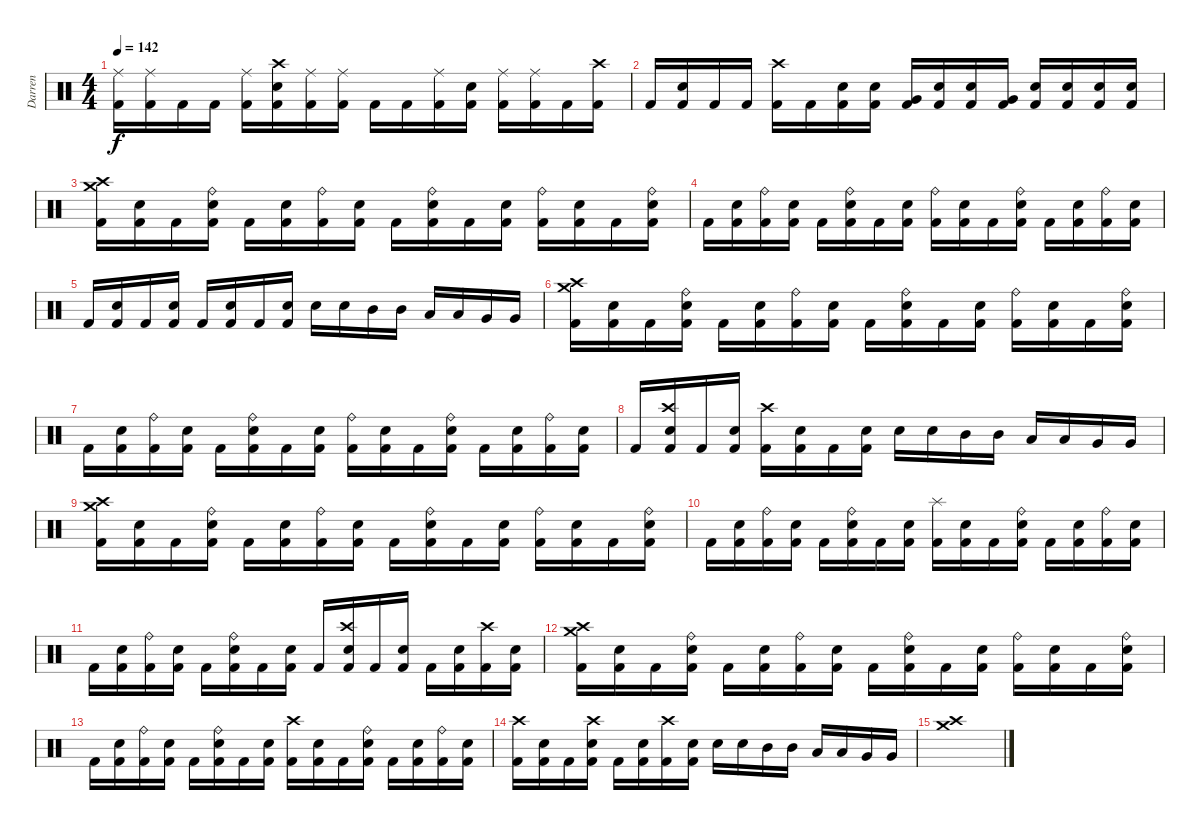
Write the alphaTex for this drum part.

\track ("Darren" "Darren") {instrument percussion}
\staff {score}
\articulation defaults
\ts (4 4)
\tempo 142
\clef neutral
\ks c
("Ride (middle)" "Kick (hit) 2").16{dy f} ("Ride (middle)" "Kick (hit) 2").16 "Kick (hit) 2".16 "Kick (hit) 2".16 ("Ride (middle)" "Kick (hit) 2").16 ("Crash high (hit)" "Electric Snare (hit)" "Kick (hit) 2").16 ("Ride (middle)" "Kick (hit) 2").16 ("Ride (middle)" "Kick (hit) 2").16 "Kick (hit) 2".16 "Kick (hit) 2".16 ("Ride (middle)" "Kick (hit) 2").16 ("Electric Snare (hit)" "Kick (hit) 2").16 ("Ride (middle)" "Kick (hit) 2").16 ("Ride (middle)" "Kick (hit) 2").16 "Kick (hit) 2".16 ("Crash high (hit)" "Kick (hit) 2").16 |
"Kick (hit) 2".16 ("Electric Snare (hit)" "Kick (hit) 2").16 "Kick (hit) 2".16 "Kick (hit) 2".16 ("Crash high (hit)" "Kick (hit) 2").16 "Kick (hit) 2".16 ("Electric Snare (hit)" "Kick (hit) 2").16 ("Electric Snare (hit)" "Kick (hit) 2").16 ("Very Low Tom (hit)" "Kick (hit) 2").16 ("Electric Snare (hit)" "Kick (hit) 2").16 ("Electric Snare (hit)" "Kick (hit) 2").16 ("Very Low Tom (hit)" "Kick (hit) 2").16 ("Electric Snare (hit)" "Kick (hit) 2").16 ("Electric Snare (hit)" "Kick (hit) 2").16 ("Electric Snare (hit)" "Kick (hit) 2").16 ("Electric Snare (hit)" "Kick (hit) 2").16 |
("Crash medium (hit)" "Crash high (hit)" "Kick (hit) 2").16 ("Electric Snare (hit)" "Kick (hit) 2").16 "Kick (hit) 2".16 ("Ride (bell)" "Electric Snare (hit)" "Kick (hit) 2").16 "Kick (hit) 2".16 ("Electric Snare (hit)" "Kick (hit) 2").16 ("Ride (bell)" "Kick (hit) 2").16 ("Electric Snare (hit)" "Kick (hit) 2").16 "Kick (hit) 2".16 ("Ride (bell)" "Electric Snare (hit)" "Kick (hit) 2").16 "Kick (hit) 2".16 ("Electric Snare (hit)" "Kick (hit) 2").16 ("Ride (bell)" "Kick (hit) 2").16 ("Electric Snare (hit)" "Kick (hit) 2").16 "Kick (hit) 2".16 ("Ride (bell)" "Electric Snare (hit)" "Kick (hit) 2").16 |
"Kick (hit) 2".16 ("Electric Snare (hit)" "Kick (hit) 2").16 ("Ride (bell)" "Kick (hit) 2").16 ("Electric Snare (hit)" "Kick (hit) 2").16 "Kick (hit) 2".16 ("Ride (bell)" "Electric Snare (hit)" "Kick (hit) 2").16 "Kick (hit) 2".16 ("Electric Snare (hit)" "Kick (hit) 2").16 ("Ride (bell)" "Kick (hit) 2").16 ("Electric Snare (hit)" "Kick (hit) 2").16 "Kick (hit) 2".16 ("Ride (bell)" "Electric Snare (hit)" "Kick (hit) 2").16 "Kick (hit) 2".16 ("Electric Snare (hit)" "Kick (hit) 2").16 ("Ride (bell)" "Kick (hit) 2").16 ("Electric Snare (hit)" "Kick (hit) 2").16 |
"Kick (hit) 2".16 ("Electric Snare (hit)" "Kick (hit) 2").16 "Kick (hit) 2".16 ("Electric Snare (hit)" "Kick (hit) 2").16 "Kick (hit) 2".16 ("Electric Snare (hit)" "Kick (hit) 2").16 "Kick (hit) 2".16 ("Electric Snare (hit)" "Kick (hit) 2").16 "Electric Snare (hit)".16 "Electric Snare (hit)".16 "Mid Tom (hit)".16 "Mid Tom (hit)".16 "Low Tom (hit)".16 "Low Tom (hit)".16 "Very Low Tom (hit)".16 "Very Low Tom (hit)".16 |
("Crash medium (hit)" "Crash high (hit)" "Kick (hit) 2").16 ("Electric Snare (hit)" "Kick (hit) 2").16 "Kick (hit) 2".16 ("Ride (bell)" "Electric Snare (hit)" "Kick (hit) 2").16 "Kick (hit) 2".16 ("Electric Snare (hit)" "Kick (hit) 2").16 ("Ride (bell)" "Kick (hit) 2").16 ("Electric Snare (hit)" "Kick (hit) 2").16 "Kick (hit) 2".16 ("Ride (bell)" "Electric Snare (hit)" "Kick (hit) 2").16 "Kick (hit) 2".16 ("Electric Snare (hit)" "Kick (hit) 2").16 ("Ride (bell)" "Kick (hit) 2").16 ("Electric Snare (hit)" "Kick (hit) 2").16 "Kick (hit) 2".16 ("Ride (bell)" "Electric Snare (hit)" "Kick (hit) 2").16 |
"Kick (hit) 2".16 ("Electric Snare (hit)" "Kick (hit) 2").16 ("Ride (bell)" "Kick (hit) 2").16 ("Electric Snare (hit)" "Kick (hit) 2").16 "Kick (hit) 2".16 ("Ride (bell)" "Electric Snare (hit)" "Kick (hit) 2").16 "Kick (hit) 2".16 ("Electric Snare (hit)" "Kick (hit) 2").16 ("Ride (bell)" "Kick (hit) 2").16 ("Electric Snare (hit)" "Kick (hit) 2").16 "Kick (hit) 2".16 ("Ride (bell)" "Electric Snare (hit)" "Kick (hit) 2").16 "Kick (hit) 2".16 ("Electric Snare (hit)" "Kick (hit) 2").16 ("Ride (bell)" "Kick (hit) 2").16 ("Electric Snare (hit)" "Kick (hit) 2").16 |
"Kick (hit) 2".16 ("Crash high (hit)" "Electric Snare (hit)" "Kick (hit) 2").16 "Kick (hit) 2".16 ("Electric Snare (hit)" "Kick (hit) 2").16 ("Crash high (hit)" "Kick (hit) 2").16 ("Electric Snare (hit)" "Kick (hit) 2").16 "Kick (hit) 2".16 ("Electric Snare (hit)" "Kick (hit) 2").16 "Electric Snare (hit)".16 "Electric Snare (hit)".16 "Mid Tom (hit)".16 "Mid Tom (hit)".16 "Low Tom (hit)".16 "Low Tom (hit)".16 "Very Low Tom (hit)".16 "Very Low Tom (hit)".16 |
("Crash medium (hit)" "Crash high (hit)" "Kick (hit) 2").16 ("Electric Snare (hit)" "Kick (hit) 2").16 "Kick (hit) 2".16 ("Ride (bell)" "Electric Snare (hit)" "Kick (hit) 2").16 "Kick (hit) 2".16 ("Electric Snare (hit)" "Kick (hit) 2").16 ("Ride (bell)" "Kick (hit) 2").16 ("Electric Snare (hit)" "Kick (hit) 2").16 "Kick (hit) 2".16 ("Ride (bell)" "Electric Snare (hit)" "Kick (hit) 2").16 "Kick (hit) 2".16 ("Electric Snare (hit)" "Kick (hit) 2").16 ("Ride (bell)" "Kick (hit) 2").16 ("Electric Snare (hit)" "Kick (hit) 2").16 "Kick (hit) 2".16 ("Ride (bell)" "Electric Snare (hit)" "Kick (hit) 2").16 |
"Kick (hit) 2".16 ("Electric Snare (hit)" "Kick (hit) 2").16 ("Ride (bell)" "Kick (hit) 2").16 ("Electric Snare (hit)" "Kick (hit) 2").16 "Kick (hit) 2".16 ("Ride (bell)" "Electric Snare (hit)" "Kick (hit) 2").16 "Kick (hit) 2".16 ("Electric Snare (hit)" "Kick (hit) 2").16 ("Splash (hit)" "Kick (hit) 2").16 ("Electric Snare (hit)" "Kick (hit) 2").16 "Kick (hit) 2".16 ("Ride (bell)" "Electric Snare (hit)" "Kick (hit) 2").16 "Kick (hit) 2".16 ("Electric Snare (hit)" "Kick (hit) 2").16 ("Ride (bell)" "Kick (hit) 2").16 ("Electric Snare (hit)" "Kick (hit) 2").16 |
"Kick (hit) 2".16 ("Electric Snare (hit)" "Kick (hit) 2").16 ("Ride (bell)" "Kick (hit) 2").16 ("Electric Snare (hit)" "Kick (hit) 2").16 "Kick (hit) 2".16 ("Ride (bell)" "Electric Snare (hit)" "Kick (hit) 2").16 "Kick (hit) 2".16 ("Electric Snare (hit)" "Kick (hit) 2").16 "Kick (hit) 2".16 ("Crash high (hit)" "Electric Snare (hit)" "Kick (hit) 2").16 "Kick (hit) 2".16 ("Electric Snare (hit)" "Kick (hit) 2").16 "Kick (hit) 2".16 ("Electric Snare (hit)" "Kick (hit) 2").16 ("Crash high (hit)" "Kick (hit) 2").16 ("Electric Snare (hit)" "Kick (hit) 2").16 |
("Crash medium (hit)" "Crash high (hit)" "Kick (hit) 2").16 ("Electric Snare (hit)" "Kick (hit) 2").16 "Kick (hit) 2".16 ("Ride (bell)" "Electric Snare (hit)" "Kick (hit) 2").16 "Kick (hit) 2".16 ("Electric Snare (hit)" "Kick (hit) 2").16 ("Ride (bell)" "Kick (hit) 2").16 ("Electric Snare (hit)" "Kick (hit) 2").16 "Kick (hit) 2".16 ("Ride (bell)" "Electric Snare (hit)" "Kick (hit) 2").16 "Kick (hit) 2".16 ("Electric Snare (hit)" "Kick (hit) 2").16 ("Ride (bell)" "Kick (hit) 2").16 ("Electric Snare (hit)" "Kick (hit) 2").16 "Kick (hit) 2".16 ("Ride (bell)" "Electric Snare (hit)" "Kick (hit) 2").16 |
"Kick (hit) 2".16 ("Electric Snare (hit)" "Kick (hit) 2").16 ("Ride (bell)" "Kick (hit) 2").16 ("Electric Snare (hit)" "Kick (hit) 2").16 "Kick (hit) 2".16 ("Ride (bell)" "Electric Snare (hit)" "Kick (hit) 2").16 "Kick (hit) 2".16 ("Electric Snare (hit)" "Kick (hit) 2").16 ("Crash high (hit)" "Kick (hit) 2").16 ("Electric Snare (hit)" "Kick (hit) 2").16 "Kick (hit) 2".16 ("Ride (bell)" "Electric Snare (hit)" "Kick (hit) 2").16 "Kick (hit) 2".16 ("Electric Snare (hit)" "Kick (hit) 2").16 ("Ride (bell)" "Kick (hit) 2").16 ("Electric Snare (hit)" "Kick (hit) 2").16 |
("Crash high (hit)" "Kick (hit) 2").16 ("Electric Snare (hit)" "Kick (hit) 2").16 "Kick (hit) 2".16 ("Crash high (hit)" "Electric Snare (hit)" "Kick (hit) 2").16 "Kick (hit) 2".16 ("Electric Snare (hit)" "Kick (hit) 2").16 ("Crash high (hit)" "Kick (hit) 2").16 ("Electric Snare (hit)" "Kick (hit) 2").16 "Electric Snare (hit)".16 "Electric Snare (hit)".16 "Mid Tom (hit)".16 "Mid Tom (hit)".16 "Low Tom (hit)".16 "Low Tom (hit)".16 "Very Low Tom (hit)".16 "Very Low Tom (hit)".16 |
("Crash medium (hit)" "Crash high (hit)").1
